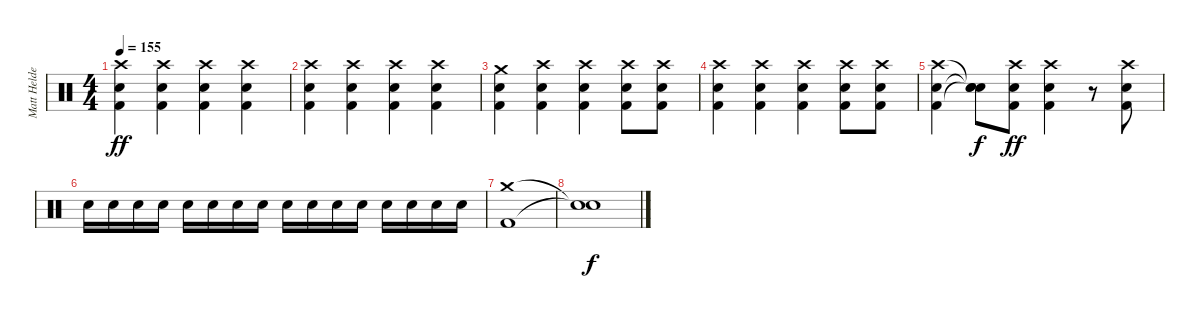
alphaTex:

\track ("Matt Helders" "Matt Helde") {instrument percussion}
\staff {score}
\articulation defaults
\ts (4 4)
\tempo 155
\clef neutral
\ks c
("Crash high (hit)" "Snare (hit) 2" "Kick (hit) 2").4{dy ff} ("Crash high (hit)" "Snare (hit) 2" "Kick (hit) 2").4 ("Crash high (hit)" "Snare (hit) 2" "Kick (hit) 2").4 ("Crash high (hit)" "Snare (hit) 2" "Kick (hit) 2").4 |
("Crash high (hit)" "Snare (hit) 2" "Kick (hit) 2").4 ("Crash high (hit)" "Snare (hit) 2" "Kick (hit) 2").4 ("Crash high (hit)" "Snare (hit) 2" "Kick (hit) 2").4 ("Crash high (hit)" "Snare (hit) 2" "Kick (hit) 2").4 |
("Crash medium (hit)" "Snare (hit) 2" "Kick (hit) 2").4 ("Crash high (hit)" "Snare (hit) 2" "Kick (hit) 2").4 ("Crash high (hit)" "Snare (hit) 2" "Kick (hit) 2").4 ("Crash high (hit)" "Snare (hit) 2" "Kick (hit) 2").8 ("Crash high (hit)" "Snare (hit) 2" "Kick (hit) 2").8 |
("Crash high (hit)" "Snare (hit) 2" "Kick (hit) 2").4 ("Crash high (hit)" "Snare (hit) 2" "Kick (hit) 2").4 ("Crash high (hit)" "Snare (hit) 2" "Kick (hit) 2").4 ("Crash high (hit)" "Snare (hit) 2" "Kick (hit) 2").8 ("Crash high (hit)" "Snare (hit) 2" "Kick (hit) 2").8 |
("Crash high (hit)" "Snare (hit) 2" "Kick (hit) 2").4 ("Snare (hit)"{t} "Snare (hit)"{t} "Snare (hit)"{t}).8{dy f} ("Crash high (hit)" "Snare (hit) 2" "Kick (hit) 2").8{dy ff} ("Crash high (hit)" "Snare (hit) 2" "Kick (hit) 2").4 r.8 ("Crash high (hit)" "Snare (hit) 2" "Kick (hit) 2").8 |
"Snare (hit) 2".16 "Snare (hit) 2".16 "Snare (hit) 2".16 "Snare (hit) 2".16 "Snare (hit) 2".16 "Snare (hit) 2".16 "Snare (hit) 2".16 "Snare (hit) 2".16 "Snare (hit) 2".16 "Snare (hit) 2".16 "Snare (hit) 2".16 "Snare (hit) 2".16 "Snare (hit) 2".16 "Snare (hit) 2".16 "Snare (hit) 2".16 "Snare (hit) 2".16 |
("Crash medium (hit)" "Kick (hit) 2").1 |
("Snare (hit)"{t} "Snare (hit)"{t}).1{dy f}
